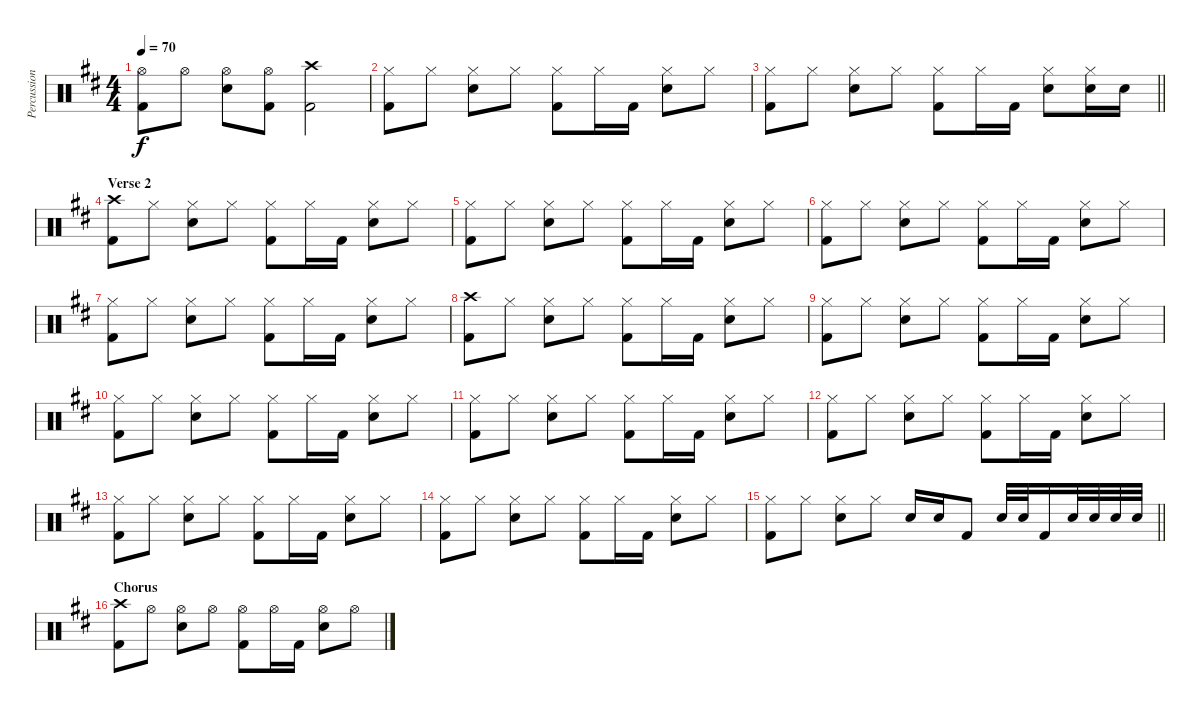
\track ("Percussion" "Percussion") {instrument percussion}
\staff {score}
\articulation defaults
\ts (4 4)
\tempo 70
\clef neutral
\ks d
("Hi-Hat (open)" "Kick (hit) 2").8{dy f} "Hi-Hat (open)".8 ("Hi-Hat (open)" "Snare (hit) 2").8 ("Hi-Hat (open)" "Kick (hit) 2").8 ("Crash high (hit)" "Kick (hit) 2").2 |
("Hi-Hat (closed)" "Kick (hit) 2").8 "Hi-Hat (closed)".8 ("Hi-Hat (closed)" "Snare (hit) 2").8 "Hi-Hat (closed)".8 ("Hi-Hat (closed)" "Kick (hit) 2").8 "Hi-Hat (closed)".16 "Kick (hit) 2".16 ("Hi-Hat (closed)" "Snare (hit) 2").8 "Hi-Hat (closed)".8 |
\barLineRight lightlight
("Hi-Hat (closed)" "Kick (hit) 2").8 "Hi-Hat (closed)".8 ("Hi-Hat (closed)" "Snare (hit) 2").8 "Hi-Hat (closed)".8 ("Hi-Hat (closed)" "Kick (hit) 2").8 "Hi-Hat (closed)".16 "Kick (hit) 2".16 ("Hi-Hat (closed)" "Snare (hit) 2").8 ("Hi-Hat (closed)" "Snare (hit) 2").16 "Snare (hit) 2".16 |
\section ("" "Verse 2")
("Crash high (hit)" "Kick (hit) 2").8 "Hi-Hat (closed)".8 ("Hi-Hat (closed)" "Snare (hit) 2").8 "Hi-Hat (closed)".8 ("Hi-Hat (closed)" "Kick (hit) 2").8 "Hi-Hat (closed)".16 "Kick (hit) 2".16 ("Hi-Hat (closed)" "Snare (hit) 2").8 "Hi-Hat (closed)".8 |
("Hi-Hat (closed)" "Kick (hit) 2").8 "Hi-Hat (closed)".8 ("Hi-Hat (closed)" "Snare (hit) 2").8 "Hi-Hat (closed)".8 ("Hi-Hat (closed)" "Kick (hit) 2").8 "Hi-Hat (closed)".16 "Kick (hit) 2".16 ("Hi-Hat (closed)" "Snare (hit) 2").8 "Hi-Hat (closed)".8 |
("Hi-Hat (closed)" "Kick (hit) 2").8 "Hi-Hat (closed)".8 ("Hi-Hat (closed)" "Snare (hit) 2").8 "Hi-Hat (closed)".8 ("Hi-Hat (closed)" "Kick (hit) 2").8 "Hi-Hat (closed)".16 "Kick (hit) 2".16 ("Hi-Hat (closed)" "Snare (hit) 2").8 "Hi-Hat (closed)".8 |
("Hi-Hat (closed)" "Kick (hit) 2").8 "Hi-Hat (closed)".8 ("Hi-Hat (closed)" "Snare (hit) 2").8 "Hi-Hat (closed)".8 ("Hi-Hat (closed)" "Kick (hit) 2").8 "Hi-Hat (closed)".16 "Kick (hit) 2".16 ("Hi-Hat (closed)" "Snare (hit) 2").8 "Hi-Hat (closed)".8 |
("Crash high (hit)" "Kick (hit) 2").8 "Hi-Hat (closed)".8 ("Hi-Hat (closed)" "Snare (hit) 2").8 "Hi-Hat (closed)".8 ("Hi-Hat (closed)" "Kick (hit) 2").8 "Hi-Hat (closed)".16 "Kick (hit) 2".16 ("Hi-Hat (closed)" "Snare (hit) 2").8 "Hi-Hat (closed)".8 |
("Hi-Hat (closed)" "Kick (hit) 2").8 "Hi-Hat (closed)".8 ("Hi-Hat (closed)" "Snare (hit) 2").8 "Hi-Hat (closed)".8 ("Hi-Hat (closed)" "Kick (hit) 2").8 "Hi-Hat (closed)".16 "Kick (hit) 2".16 ("Hi-Hat (closed)" "Snare (hit) 2").8 "Hi-Hat (closed)".8 |
("Hi-Hat (closed)" "Kick (hit) 2").8 "Hi-Hat (closed)".8 ("Hi-Hat (closed)" "Snare (hit) 2").8 "Hi-Hat (closed)".8 ("Hi-Hat (closed)" "Kick (hit) 2").8 "Hi-Hat (closed)".16 "Kick (hit) 2".16 ("Hi-Hat (closed)" "Snare (hit) 2").8 "Hi-Hat (closed)".8 |
("Hi-Hat (closed)" "Kick (hit) 2").8 "Hi-Hat (closed)".8 ("Hi-Hat (closed)" "Snare (hit) 2").8 "Hi-Hat (closed)".8 ("Hi-Hat (closed)" "Kick (hit) 2").8 "Hi-Hat (closed)".16 "Kick (hit) 2".16 ("Hi-Hat (closed)" "Snare (hit) 2").8 "Hi-Hat (closed)".8 |
("Hi-Hat (closed)" "Kick (hit) 2").8 "Hi-Hat (closed)".8 ("Hi-Hat (closed)" "Snare (hit) 2").8 "Hi-Hat (closed)".8 ("Hi-Hat (closed)" "Kick (hit) 2").8 "Hi-Hat (closed)".16 "Kick (hit) 2".16 ("Hi-Hat (closed)" "Snare (hit) 2").8 "Hi-Hat (closed)".8 |
("Hi-Hat (closed)" "Kick (hit) 2").8 "Hi-Hat (closed)".8 ("Hi-Hat (closed)" "Snare (hit) 2").8 "Hi-Hat (closed)".8 ("Hi-Hat (closed)" "Kick (hit) 2").8 "Hi-Hat (closed)".16 "Kick (hit) 2".16 ("Hi-Hat (closed)" "Snare (hit) 2").8 "Hi-Hat (closed)".8 |
("Hi-Hat (closed)" "Kick (hit) 2").8 "Hi-Hat (closed)".8 ("Hi-Hat (closed)" "Snare (hit) 2").8 "Hi-Hat (closed)".8 ("Hi-Hat (closed)" "Kick (hit) 2").8 "Hi-Hat (closed)".16 "Kick (hit) 2".16 ("Hi-Hat (closed)" "Snare (hit) 2").8 "Hi-Hat (closed)".8 |
\barLineRight lightlight
("Hi-Hat (closed)" "Kick (hit) 2").8 "Hi-Hat (closed)".8 ("Hi-Hat (closed)" "Snare (hit) 2").8 "Hi-Hat (closed)".8 "Snare (hit) 2".16 "Snare (hit) 2".16 "Kick (hit) 2".8 "Snare (hit) 2".32 "Snare (hit) 2".32 "Kick (hit) 2".16 "Snare (hit) 2".32 "Snare (hit) 2".32 "Snare (hit) 2".32 "Snare (hit) 2".32 |
\section ("" "Chorus")
("Crash high (hit)" "Kick (hit) 2").8 "Hi-Hat (open)".8 ("Hi-Hat (open)" "Snare (hit) 2").8 "Hi-Hat (open)".8 ("Hi-Hat (open)" "Kick (hit) 2").8 "Hi-Hat (open)".16 "Kick (hit) 2".16 ("Hi-Hat (open)" "Snare (hit) 2").8 "Hi-Hat (open)".8
